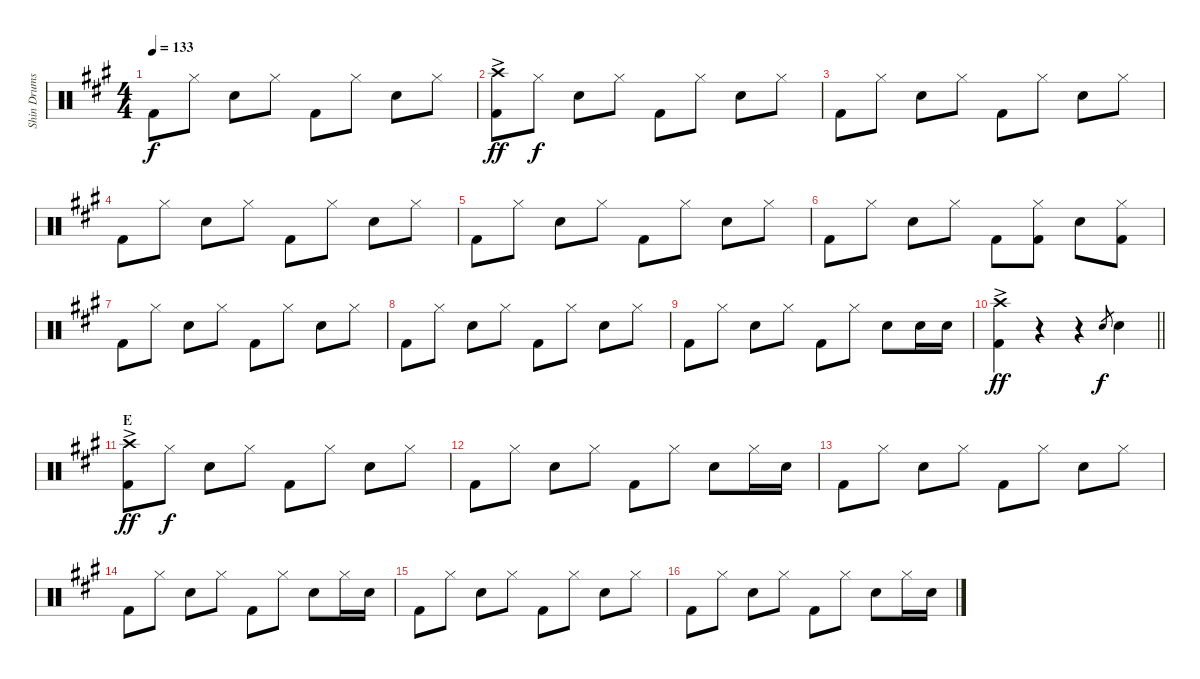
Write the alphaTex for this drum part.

\track ("Shin Drums" "Shin Drums") {instrument percussion}
\staff {score}
\articulation defaults
\ts (4 4)
\tempo 133
\clef neutral
\ks a "Kick (hit) 2".8{dy f} "Hi-Hat (closed)".8 "Snare (hit) 2".8 "Hi-Hat (closed)".8 "Kick (hit) 2".8 "Hi-Hat (closed)".8 "Snare (hit) 2".8 "Hi-Hat (closed)".8
|
("Crash high (hit)"{ac} "Kick (hit) 2").8{dy ff} "Hi-Hat (closed)".8{dy f} "Snare (hit) 2".8 "Hi-Hat (closed)".8 "Kick (hit) 2".8 "Hi-Hat (closed)".8 "Snare (hit) 2".8 "Hi-Hat (closed)".8 |
"Kick (hit) 2".8 "Hi-Hat (closed)".8 "Snare (hit) 2".8 "Hi-Hat (closed)".8 "Kick (hit) 2".8 "Hi-Hat (closed)".8 "Snare (hit) 2".8 "Hi-Hat (closed)".8 |
"Kick (hit) 2".8 "Hi-Hat (closed)".8 "Snare (hit) 2".8 "Hi-Hat (closed)".8 "Kick (hit) 2".8 "Hi-Hat (closed)".8 "Snare (hit) 2".8 "Hi-Hat (closed)".8 |
"Kick (hit) 2".8 "Hi-Hat (closed)".8 "Snare (hit) 2".8 "Hi-Hat (closed)".8 "Kick (hit) 2".8 "Hi-Hat (closed)".8 "Snare (hit) 2".8 "Hi-Hat (closed)".8 |
"Kick (hit) 2".8 "Hi-Hat (closed)".8 "Snare (hit) 2".8 "Hi-Hat (closed)".8 "Kick (hit) 2".8 ("Hi-Hat (closed)" "Kick (hit) 2").8 "Snare (hit) 2".8 ("Hi-Hat (closed)" "Kick (hit) 2").8 |
"Kick (hit) 2".8 "Hi-Hat (closed)".8 "Snare (hit) 2".8 "Hi-Hat (closed)".8 "Kick (hit) 2".8 "Hi-Hat (closed)".8 "Snare (hit) 2".8 "Hi-Hat (closed)".8 |
"Kick (hit) 2".8 "Hi-Hat (closed)".8 "Snare (hit) 2".8 "Hi-Hat (closed)".8 "Kick (hit) 2".8 "Hi-Hat (closed)".8 "Snare (hit) 2".8 "Hi-Hat (closed)".8 |
"Kick (hit) 2".8 "Hi-Hat (closed)".8 "Snare (hit) 2".8 "Hi-Hat (closed)".8 "Kick (hit) 2".8 "Hi-Hat (closed)".8 "Snare (hit) 2".8 "Snare (hit) 2".16 "Snare (hit) 2".16 |
\barLineRight lightlight
("Crash high (hit)"{ac} "Kick (hit) 2").4{dy ff} r.4 r.4 "Snare (hit) 2".8{gr dy f} "Snare (hit) 2".4 |
\section ("" "E")
("Crash high (hit)"{ac} "Kick (hit) 2").8{dy ff} "Hi-Hat (closed)".8{dy f} "Snare (hit) 2".8 "Hi-Hat (closed)".8 "Kick (hit) 2".8 "Hi-Hat (closed)".8 "Snare (hit) 2".8 "Hi-Hat (closed)".8 |
"Kick (hit) 2".8 "Hi-Hat (closed)".8 "Snare (hit) 2".8 "Hi-Hat (closed)".8 "Kick (hit) 2".8 "Hi-Hat (closed)".8 "Snare (hit) 2".8 "Hi-Hat (closed)".16 "Snare (hit) 2".16 |
"Kick (hit) 2".8 "Hi-Hat (closed)".8 "Snare (hit) 2".8 "Hi-Hat (closed)".8 "Kick (hit) 2".8 "Hi-Hat (closed)".8 "Snare (hit) 2".8 "Hi-Hat (closed)".8 |
"Kick (hit) 2".8 "Hi-Hat (closed)".8 "Snare (hit) 2".8 "Hi-Hat (closed)".8 "Kick (hit) 2".8 "Hi-Hat (closed)".8 "Snare (hit) 2".8 "Hi-Hat (closed)".16 "Snare (hit) 2".16 |
"Kick (hit) 2".8 "Hi-Hat (closed)".8 "Snare (hit) 2".8 "Hi-Hat (closed)".8 "Kick (hit) 2".8 "Hi-Hat (closed)".8 "Snare (hit) 2".8 "Hi-Hat (closed)".8 |
"Kick (hit) 2".8 "Hi-Hat (closed)".8 "Snare (hit) 2".8 "Hi-Hat (closed)".8 "Kick (hit) 2".8 "Hi-Hat (closed)".8 "Snare (hit) 2".8 "Hi-Hat (closed)".16 "Snare (hit) 2".16
